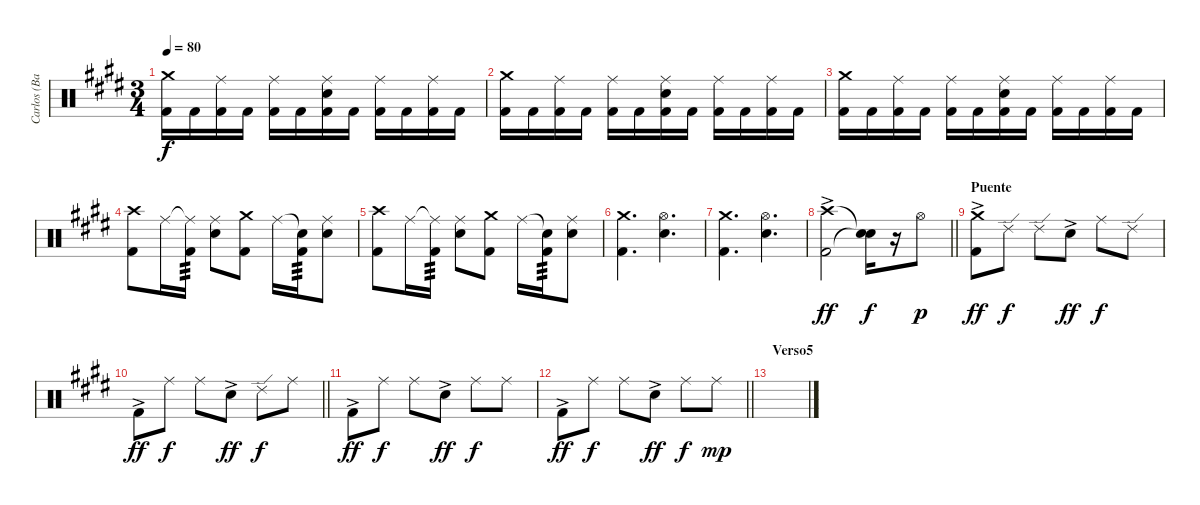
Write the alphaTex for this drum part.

\track ("Carlos (Batería)" "Carlos (Ba") {instrument percussion}
\staff
\articulation defaults
\ts (3 4)
\tempo 80
\clef neutral
\ks c#minor
("Crash medium (hit)" "Kick (hit) 2").16{dy f} "Kick (hit) 2".16 ("Ride (middle)" "Kick (hit) 2").16 "Kick (hit) 2".16 ("Ride (middle)" "Kick (hit) 2").16 "Kick (hit) 2".16 ("Ride (middle)" "Snare (hit) 2" "Kick (hit) 2").16 "Kick (hit) 2".16 ("Ride (middle)" "Kick (hit) 2").16 "Kick (hit) 2".16 ("Ride (middle)" "Kick (hit) 2").16 "Kick (hit) 2".16 |
("Crash medium (hit)" "Kick (hit) 2").16 "Kick (hit) 2".16 ("Ride (middle)" "Kick (hit) 2").16 "Kick (hit) 2".16 ("Ride (middle)" "Kick (hit) 2").16 "Kick (hit) 2".16 ("Ride (middle)" "Snare (hit) 2" "Kick (hit) 2").16 "Kick (hit) 2".16 ("Ride (middle)" "Kick (hit) 2").16 "Kick (hit) 2".16 ("Ride (middle)" "Kick (hit) 2").16 "Kick (hit) 2".16 |
("Crash medium (hit)" "Kick (hit) 2").16 "Kick (hit) 2".16 ("Ride (middle)" "Kick (hit) 2").16 "Kick (hit) 2".16 ("Ride (middle)" "Kick (hit) 2").16 "Kick (hit) 2".16 ("Ride (middle)" "Snare (hit) 2" "Kick (hit) 2").16 "Kick (hit) 2".16 ("Ride (middle)" "Kick (hit) 2").16 "Kick (hit) 2".16 ("Ride (middle)" "Kick (hit) 2").16 "Kick (hit) 2".16 |
("Crash high (hit)" "Kick (hit) 2").8 "Ride (middle)".16 ("Ride (middle)"{t} "Kick (hit) 2").16{tp 3} ("Ride (middle)" "Snare (hit) 2").8 ("Crash medium (hit)" "Kick (hit) 2").8 "Ride (middle)".16 ("Snare (hit)"{t} "Kick (hit) 2").16{tp 3} ("Ride (middle)" "Snare (hit) 2").8 |
("Crash high (hit)" "Kick (hit) 2").8 "Ride (middle)".16 ("Ride (middle)"{t} "Kick (hit) 2").16{tp 3} ("Ride (middle)" "Snare (hit) 2").8 ("Crash medium (hit)" "Kick (hit) 2").8 "Ride (middle)".16 ("Snare (hit)"{t} "Kick (hit) 2").16{tp 3} ("Ride (middle)" "Snare (hit) 2").8 |
("Crash medium (hit)" "Kick (hit) 2").4{d} ("Hi-Hat (open)" "Snare (hit) 2").4{d} |
("Crash medium (hit)" "Kick (hit) 2").4{d} ("Hi-Hat (open)" "Snare (hit) 2").4{d} |
\barLineRight lightlight
("Crash high (hit)" "Kick (hit) 2"{ac}).2{dy ff} ("Snare (hit)"{t} "Snare (hit)"{t}).16{dy f} r.16 "Hi-Hat (open)".8{dy p} |
\section ("" "Puente")
("Crash medium (hit)" "Kick (hit) 2"{ac}).8{dy ff} "Ride (edge) 2".8{dy f} "Ride (edge) 2".8 "Snare (hit) 2"{ac}.8{dy ff} "Ride (middle)".8{dy f} "Ride (edge) 2".8 |
\barLineRight lightlight "Kick (hit) 2"{ac}.8{dy ff} "Ride (middle)".8{dy f} "Ride (middle)".8 "Snare (hit) 2"{ac}.8{dy ff} "Ride (edge) 2".8{dy f} "Ride (middle)".8
|
"Kick (hit) 2"{ac}.8{dy ff} "Ride (middle)".8{dy f} "Ride (middle)".8 "Snare (hit) 2"{ac}.8{dy ff} "Ride (middle)".8{dy f} "Ride (middle)".8 |
\barLineRight lightlight "Kick (hit) 2"{ac}.8{dy ff} "Ride (middle)".8{dy f} "Ride (middle)".8 "Snare (hit) 2"{ac}.8{dy ff} "Ride (middle)".8{dy f} "Ride (middle)".8{dy mp}
|
\section ("" "Verso5")
